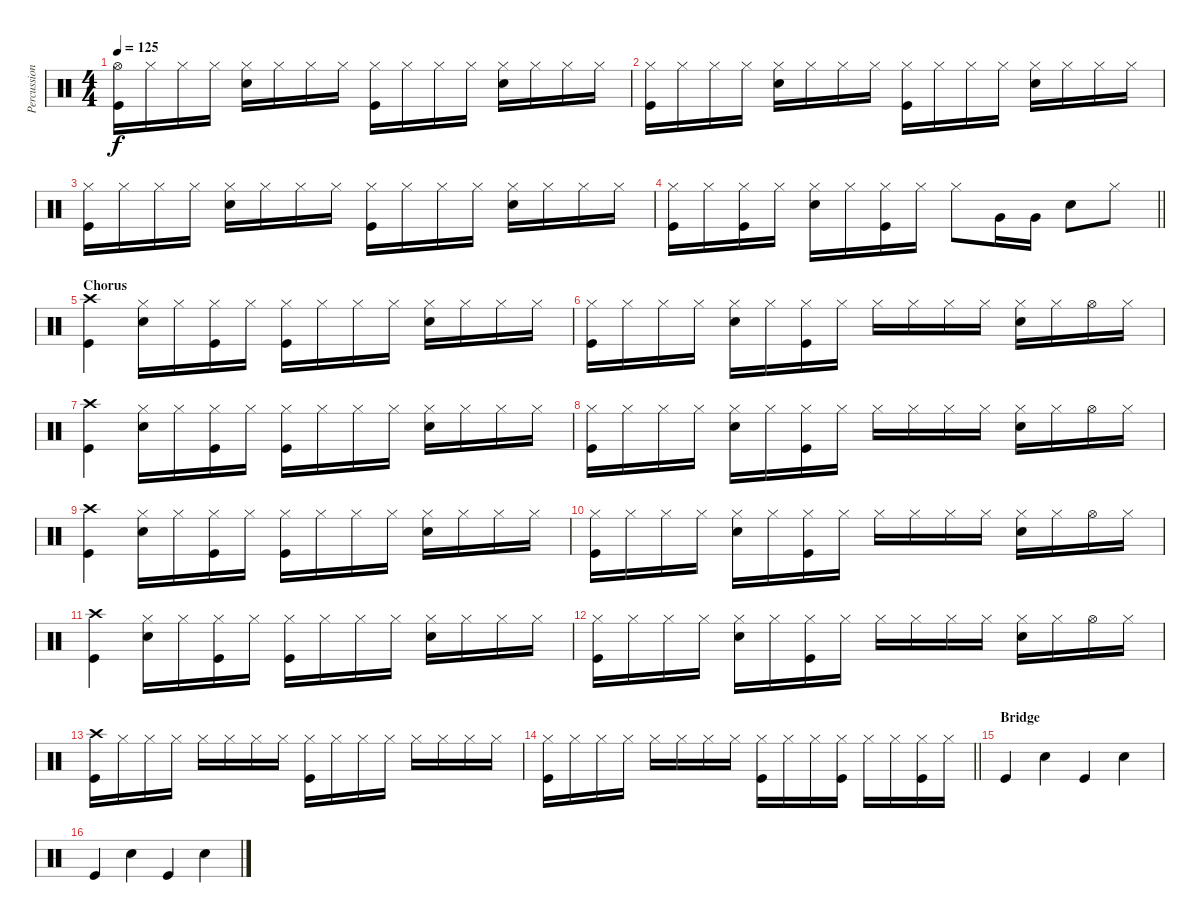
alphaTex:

\track ("Percussion" "Percussion") {instrument percussion}
\staff {score}
\articulation defaults
\ts (4 4)
\tempo 125
\clef neutral
\ks c
("Kick (hit)" "Hi-Hat (open)").16{dy f} "Hi-Hat (closed)".16 "Hi-Hat (closed)".16 "Hi-Hat (closed)".16 ("Hi-Hat (closed)" "Snare (hit) 2").16 "Hi-Hat (closed)".16 "Hi-Hat (closed)".16 "Hi-Hat (closed)".16 ("Kick (hit)" "Hi-Hat (closed)").16 "Hi-Hat (closed)".16 "Hi-Hat (closed)".16 "Hi-Hat (closed)".16 ("Hi-Hat (closed)" "Snare (hit) 2").16 "Hi-Hat (closed)".16 "Hi-Hat (closed)".16 "Hi-Hat (closed)".16 |
("Kick (hit)" "Hi-Hat (closed)").16 "Hi-Hat (closed)".16 "Hi-Hat (closed)".16 "Hi-Hat (closed)".16 ("Hi-Hat (closed)" "Snare (hit) 2").16 "Hi-Hat (closed)".16 "Hi-Hat (closed)".16 "Hi-Hat (closed)".16 ("Kick (hit)" "Hi-Hat (closed)").16 "Hi-Hat (closed)".16 "Hi-Hat (closed)".16 "Hi-Hat (closed)".16 ("Hi-Hat (closed)" "Snare (hit) 2").16 "Hi-Hat (closed)".16 "Hi-Hat (closed)".16 "Hi-Hat (closed)".16 |
("Kick (hit)" "Hi-Hat (closed)").16 "Hi-Hat (closed)".16 "Hi-Hat (closed)".16 "Hi-Hat (closed)".16 ("Hi-Hat (closed)" "Snare (hit) 2").16 "Hi-Hat (closed)".16 "Hi-Hat (closed)".16 "Hi-Hat (closed)".16 ("Kick (hit)" "Hi-Hat (closed)").16 "Hi-Hat (closed)".16 "Hi-Hat (closed)".16 "Hi-Hat (closed)".16 ("Hi-Hat (closed)" "Snare (hit) 2").16 "Hi-Hat (closed)".16 "Hi-Hat (closed)".16 "Hi-Hat (closed)".16 |
\barLineRight lightlight
("Kick (hit)" "Hi-Hat (closed)").16 "Hi-Hat (closed)".16 ("Kick (hit)" "Hi-Hat (closed)").16 "Hi-Hat (closed)".16 ("Hi-Hat (closed)" "Snare (hit) 2").16 "Hi-Hat (closed)".16 ("Kick (hit)" "Hi-Hat (closed)").16 "Hi-Hat (closed)".16 "Hi-Hat (closed)".8 "Very Low Tom (hit)".16 "Very Low Tom (hit)".16 "Snare (hit) 2".8 "Hi-Hat (closed)".8 |
\section ("" "Chorus")
("Kick (hit)" "Crash high (hit)").4 ("Hi-Hat (closed)" "Snare (hit) 2").16 "Hi-Hat (closed)".16 ("Kick (hit)" "Hi-Hat (closed)").16 "Hi-Hat (closed)".16 ("Kick (hit)" "Hi-Hat (closed)").16 "Hi-Hat (closed)".16 "Hi-Hat (closed)".16 "Hi-Hat (closed)".16 ("Hi-Hat (closed)" "Snare (hit) 2").16 "Hi-Hat (closed)".16 "Hi-Hat (closed)".16 "Hi-Hat (closed)".16 |
("Kick (hit)" "Hi-Hat (closed)").16 "Hi-Hat (closed)".16 "Hi-Hat (closed)".16 "Hi-Hat (closed)".16 ("Hi-Hat (closed)" "Snare (hit) 2").16 "Hi-Hat (closed)".16 ("Kick (hit)" "Hi-Hat (closed)").16 "Hi-Hat (closed)".16 "Hi-Hat (closed)".16 "Hi-Hat (closed)".16 "Hi-Hat (closed)".16 "Hi-Hat (closed)".16 ("Hi-Hat (closed)" "Snare (hit) 2").16 "Hi-Hat (closed)".16 "Hi-Hat (open)".16 "Hi-Hat (closed)".16 |
("Kick (hit)" "Crash high (hit)").4 ("Hi-Hat (closed)" "Snare (hit) 2").16 "Hi-Hat (closed)".16 ("Kick (hit)" "Hi-Hat (closed)").16 "Hi-Hat (closed)".16 ("Kick (hit)" "Hi-Hat (closed)").16 "Hi-Hat (closed)".16 "Hi-Hat (closed)".16 "Hi-Hat (closed)".16 ("Hi-Hat (closed)" "Snare (hit) 2").16 "Hi-Hat (closed)".16 "Hi-Hat (closed)".16 "Hi-Hat (closed)".16 |
("Kick (hit)" "Hi-Hat (closed)").16 "Hi-Hat (closed)".16 "Hi-Hat (closed)".16 "Hi-Hat (closed)".16 ("Hi-Hat (closed)" "Snare (hit) 2").16 "Hi-Hat (closed)".16 ("Kick (hit)" "Hi-Hat (closed)").16 "Hi-Hat (closed)".16 "Hi-Hat (closed)".16 "Hi-Hat (closed)".16 "Hi-Hat (closed)".16 "Hi-Hat (closed)".16 ("Hi-Hat (closed)" "Snare (hit) 2").16 "Hi-Hat (closed)".16 "Hi-Hat (open)".16 "Hi-Hat (closed)".16 |
("Kick (hit)" "Crash high (hit)").4 ("Hi-Hat (closed)" "Snare (hit) 2").16 "Hi-Hat (closed)".16 ("Kick (hit)" "Hi-Hat (closed)").16 "Hi-Hat (closed)".16 ("Kick (hit)" "Hi-Hat (closed)").16 "Hi-Hat (closed)".16 "Hi-Hat (closed)".16 "Hi-Hat (closed)".16 ("Hi-Hat (closed)" "Snare (hit) 2").16 "Hi-Hat (closed)".16 "Hi-Hat (closed)".16 "Hi-Hat (closed)".16 |
("Kick (hit)" "Hi-Hat (closed)").16 "Hi-Hat (closed)".16 "Hi-Hat (closed)".16 "Hi-Hat (closed)".16 ("Hi-Hat (closed)" "Snare (hit) 2").16 "Hi-Hat (closed)".16 ("Kick (hit)" "Hi-Hat (closed)").16 "Hi-Hat (closed)".16 "Hi-Hat (closed)".16 "Hi-Hat (closed)".16 "Hi-Hat (closed)".16 "Hi-Hat (closed)".16 ("Hi-Hat (closed)" "Snare (hit) 2").16 "Hi-Hat (closed)".16 "Hi-Hat (open)".16 "Hi-Hat (closed)".16 |
("Kick (hit)" "Crash high (hit)").4 ("Hi-Hat (closed)" "Snare (hit) 2").16 "Hi-Hat (closed)".16 ("Kick (hit)" "Hi-Hat (closed)").16 "Hi-Hat (closed)".16 ("Kick (hit)" "Hi-Hat (closed)").16 "Hi-Hat (closed)".16 "Hi-Hat (closed)".16 "Hi-Hat (closed)".16 ("Hi-Hat (closed)" "Snare (hit) 2").16 "Hi-Hat (closed)".16 "Hi-Hat (closed)".16 "Hi-Hat (closed)".16 |
("Kick (hit)" "Hi-Hat (closed)").16 "Hi-Hat (closed)".16 "Hi-Hat (closed)".16 "Hi-Hat (closed)".16 ("Hi-Hat (closed)" "Snare (hit) 2").16 "Hi-Hat (closed)".16 ("Kick (hit)" "Hi-Hat (closed)").16 "Hi-Hat (closed)".16 "Hi-Hat (closed)".16 "Hi-Hat (closed)".16 "Hi-Hat (closed)".16 "Hi-Hat (closed)".16 ("Hi-Hat (closed)" "Snare (hit) 2").16 "Hi-Hat (closed)".16 "Hi-Hat (open)".16 "Hi-Hat (closed)".16 |
("Kick (hit)" "Crash high (hit)").16 "Hi-Hat (closed)".16 "Hi-Hat (closed)".16 "Hi-Hat (closed)".16 "Hi-Hat (closed)".16 "Hi-Hat (closed)".16 "Hi-Hat (closed)".16 "Hi-Hat (closed)".16 ("Kick (hit)" "Hi-Hat (closed)").16 "Hi-Hat (closed)".16 "Hi-Hat (closed)".16 "Hi-Hat (closed)".16 "Hi-Hat (closed)".16 "Hi-Hat (closed)".16 "Hi-Hat (closed)".16 "Hi-Hat (closed)".16 |
\barLineRight lightlight
("Kick (hit)" "Hi-Hat (closed)").16 "Hi-Hat (closed)".16 "Hi-Hat (closed)".16 "Hi-Hat (closed)".16 "Hi-Hat (closed)".16 "Hi-Hat (closed)".16 "Hi-Hat (closed)".16 "Hi-Hat (closed)".16 ("Kick (hit)" "Hi-Hat (closed)").16 "Hi-Hat (closed)".16 "Hi-Hat (closed)".16 ("Kick (hit)" "Hi-Hat (closed)").16 "Hi-Hat (closed)".16 "Hi-Hat (closed)".16 ("Kick (hit)" "Hi-Hat (closed)").16 "Hi-Hat (closed)".16 |
\section ("" "Bridge")
"Kick (hit)".4 "Snare (hit) 2".4 "Kick (hit)".4 "Snare (hit) 2".4 |
"Kick (hit)".4 "Snare (hit) 2".4 "Kick (hit)".4 "Snare (hit) 2".4
